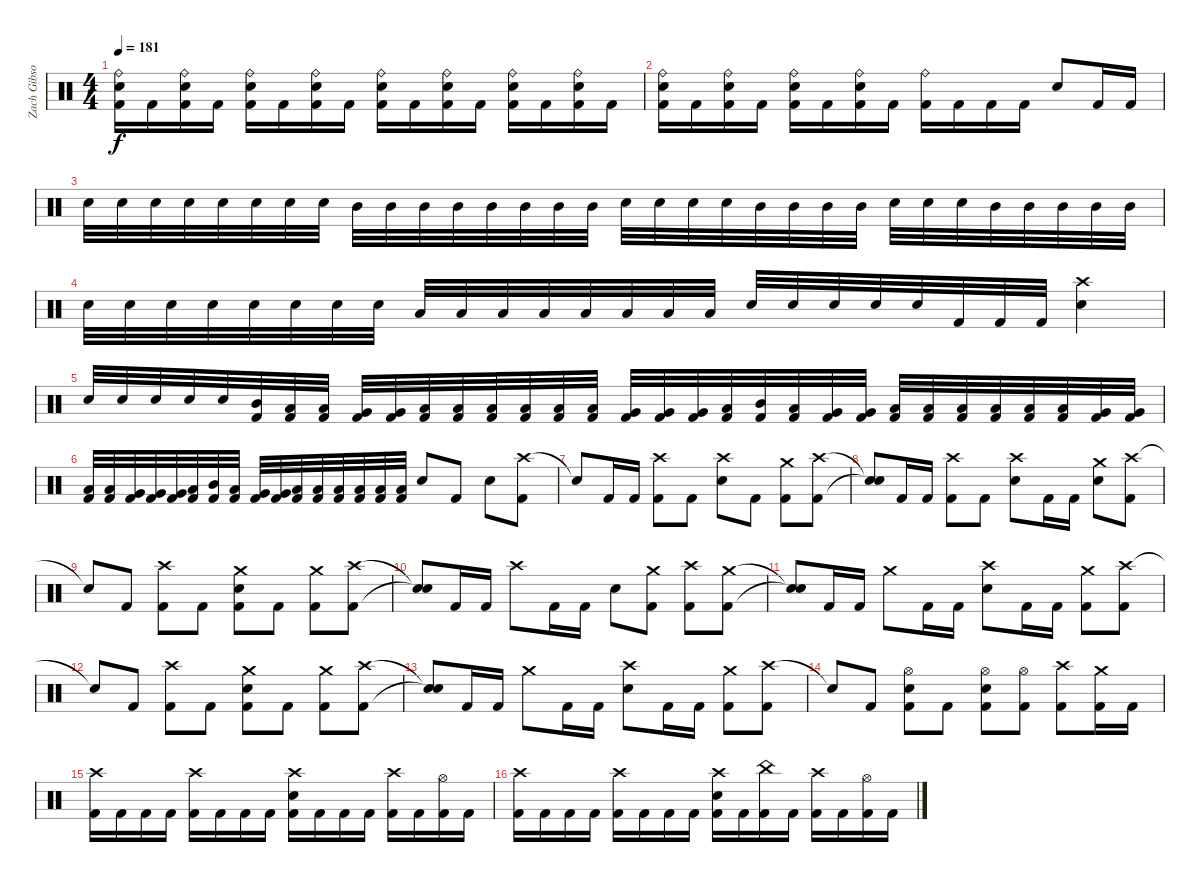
\track ("Zach Gibson (Drums)" "Zach Gibso") {instrument percussion}
\staff {score}
\articulation defaults
\ts (4 4)
\tempo 181
\clef neutral
\ks c
("Ride (bell)" "Snare (hit) 2" "Kick (hit) 2").16{dy f} "Kick (hit) 2".16 ("Ride (bell)" "Snare (hit) 2" "Kick (hit) 2").16 "Kick (hit) 2".16 ("Ride (bell)" "Snare (hit) 2" "Kick (hit) 2").16 "Kick (hit) 2".16 ("Ride (bell)" "Snare (hit) 2" "Kick (hit) 2").16 "Kick (hit) 2".16 ("Ride (bell)" "Snare (hit) 2" "Kick (hit) 2").16 "Kick (hit) 2".16 ("Ride (bell)" "Snare (hit) 2" "Kick (hit) 2").16 "Kick (hit) 2".16 ("Ride (bell)" "Snare (hit) 2" "Kick (hit) 2").16 "Kick (hit) 2".16 ("Ride (bell)" "Snare (hit) 2" "Kick (hit) 2").16 "Kick (hit) 2".16 |
("Ride (bell)" "Snare (hit) 2" "Kick (hit) 2").16 "Kick (hit) 2".16 ("Ride (bell)" "Snare (hit) 2" "Kick (hit) 2").16 "Kick (hit) 2".16 ("Ride (bell)" "Snare (hit) 2" "Kick (hit) 2").16 "Kick (hit) 2".16 ("Ride (bell)" "Snare (hit) 2" "Kick (hit) 2").16 "Kick (hit) 2".16 ("Ride (bell)" "Kick (hit) 2").16 "Kick (hit) 2".16 "Kick (hit) 2".16 "Kick (hit) 2".16 "Snare (hit) 2".8 "Kick (hit) 2".16 "Kick (hit) 2".16 |
"Snare (hit) 2".32 "Snare (hit) 2".32 "Snare (hit) 2".32 "Snare (hit) 2".32 "Snare (hit) 2".32 "Snare (hit) 2".32 "Snare (hit) 2".32 "Snare (hit) 2".32 "Mid Tom (hit)".32 "Mid Tom (hit)".32 "Mid Tom (hit)".32 "Mid Tom (hit)".32 "Mid Tom (hit)".32 "Mid Tom (hit)".32 "Mid Tom (hit)".32 "Mid Tom (hit)".32 "Snare (hit) 2".32 "Snare (hit) 2".32 "Snare (hit) 2".32 "Snare (hit) 2".32 "Mid Tom (hit)".32 "Mid Tom (hit)".32 "Mid Tom (hit)".32 "Mid Tom (hit)".32 "Snare (hit) 2".32 "Snare (hit) 2".32 "Snare (hit) 2".32 "Mid Tom (hit)".32 "Mid Tom (hit)".32 "Mid Tom (hit)".32 "Mid Tom (hit)".32 "Mid Tom (hit)".32 |
"Snare (hit) 2".32 "Snare (hit) 2".32 "Snare (hit) 2".32 "Snare (hit) 2".32 "Snare (hit) 2".32 "Snare (hit) 2".32 "Snare (hit) 2".32 "Snare (hit) 2".32 "Low Tom (hit)".32 "Low Tom (hit)".32 "Low Tom (hit)".32 "Low Tom (hit)".32 "Low Tom (hit)".32 "Low Tom (hit)".32 "Low Tom (hit)".32 "Low Tom (hit)".32 "Snare (hit) 2".32 "Snare (hit) 2".32 "Snare (hit) 2".32 "Snare (hit) 2".32 "Snare (hit) 2".32 "Kick (hit) 2".32 "Kick (hit) 2".32 "Kick (hit) 2".32 ("Crash high (hit)" "Snare (hit) 2").4 |
"Snare (hit) 2".32 "Snare (hit) 2".32 "Snare (hit) 2".32 "Snare (hit) 2".32 "Snare (hit) 2".32 ("Mid Tom (hit)" "Kick (hit) 2").32 ("Low Tom (hit)" "Kick (hit) 2").32 ("Low Tom (hit)" "Kick (hit) 2").32 ("Very Low Tom (hit)" "Kick (hit) 2").32 ("Very Low Tom (hit)" "Kick (hit) 2").32 ("Low Floor Tom (hit)" "Kick (hit) 2").32 ("Low Floor Tom (hit)" "Kick (hit) 2").32 ("Low Floor Tom (hit)" "Kick (hit) 2").32 ("Low Tom (hit)" "Kick (hit) 2").32 ("Low Tom (hit)" "Kick (hit) 2").32 ("Low Tom (hit)" "Kick (hit) 2").32 ("Very Low Tom (hit)" "Kick (hit) 2").32 ("Very Low Tom (hit)" "Kick (hit) 2").32 ("Very Low Tom (hit)" "Kick (hit) 2").32 ("Low Floor Tom (hit)" "Kick (hit) 2").32 ("Mid Tom (hit)" "Kick (hit) 2").32 ("Low Tom (hit)" "Kick (hit) 2").32 ("Very Low Tom (hit)" "Kick (hit) 2").32 ("Very Low Tom (hit)" "Kick (hit) 2").32 ("Low Floor Tom (hit)" "Kick (hit) 2").32 ("Low Floor Tom (hit)" "Kick (hit) 2").32 ("Low Floor Tom (hit)" "Kick (hit) 2").32 ("Low Floor Tom (hit)" "Kick (hit) 2").32 ("Low Floor Tom (hit)" "Kick (hit) 2").32 ("Low Floor Tom (hit)" "Kick (hit) 2").32 ("Very Low Tom (hit)" "Kick (hit) 2").32 ("Very Low Tom (hit)" "Kick (hit) 2").32 |
("Low Tom (hit)" "Kick (hit) 2").32 ("Low Tom (hit)" "Kick (hit) 2").32 ("Very Low Tom (hit)" "Kick (hit) 2").32 ("Very Low Tom (hit)" "Kick (hit) 2").32 ("Very Low Tom (hit)" "Kick (hit) 2").32 ("Low Floor Tom (hit)" "Kick (hit) 2").32 ("Mid Tom (hit)" "Kick (hit) 2").32 ("Low Tom (hit)" "Kick (hit) 2").32 ("Very Low Tom (hit)" "Kick (hit) 2").32 ("Very Low Tom (hit)" "Kick (hit) 2").32 ("Low Floor Tom (hit)" "Kick (hit) 2").32 ("Low Floor Tom (hit)" "Kick (hit) 2").32 ("Low Floor Tom (hit)" "Kick (hit) 2").32 ("Low Floor Tom (hit)" "Kick (hit) 2").32 ("Low Floor Tom (hit)" "Kick (hit) 2").32 ("Low Floor Tom (hit)" "Kick (hit) 2").32 "Snare (hit) 2".8 "Kick (hit) 2".8 "Snare (hit) 2".8 ("Crash high (hit)" "Kick (hit) 2").8 |
"Snare (hit)"{t}.8 "Kick (hit) 2".16 "Kick (hit) 2".16 ("Crash high (hit)" "Kick (hit) 2").8 "Kick (hit) 2".8 ("Crash high (hit)" "Snare (hit) 2").8 "Kick (hit) 2".8 ("Crash medium (hit)" "Kick (hit) 2").8 ("Crash high (hit)" "Kick (hit) 2").8 |
("Snare (hit)"{t} "Snare (hit)"{t}).8 "Kick (hit) 2".16 "Kick (hit) 2".16 ("Crash high (hit)" "Kick (hit) 2").8 "Kick (hit) 2".8 ("Crash high (hit)" "Snare (hit) 2").8 "Kick (hit) 2".16 "Kick (hit) 2".16 ("Crash medium (hit)" "Snare (hit) 2").8 ("Crash high (hit)" "Kick (hit) 2").8 |
"Snare (hit)"{t}.8 "Kick (hit) 2".8 ("Crash high (hit)" "Kick (hit) 2").8 "Kick (hit) 2".8 ("Crash medium (hit)" "Snare (hit) 2" "Kick (hit) 2").8 "Kick (hit) 2".8 ("Crash medium (hit)" "Kick (hit) 2").8 ("Crash high (hit)" "Kick (hit) 2").8 |
("Snare (hit)"{t} "Snare (hit)"{t}).8 "Kick (hit) 2".16 "Kick (hit) 2".16 "Crash high (hit)".8 "Kick (hit) 2".16 "Kick (hit) 2".16 "Snare (hit) 2".8 ("Crash medium (hit)" "Kick (hit) 2").8 ("Crash high (hit)" "Kick (hit) 2").8 ("Crash medium (hit)" "Kick (hit) 2").8 |
("Snare (hit)"{t} "Snare (hit)"{t}).8 "Kick (hit) 2".16 "Kick (hit) 2".16 "Crash medium (hit)".8 "Kick (hit) 2".16 "Kick (hit) 2".16 ("Crash high (hit)" "Snare (hit) 2").8 "Kick (hit) 2".16 "Kick (hit) 2".16 ("Crash medium (hit)" "Kick (hit) 2").8 ("Crash high (hit)" "Kick (hit) 2").8 |
"Snare (hit)"{t}.8 "Kick (hit) 2".8 ("Crash high (hit)" "Kick (hit) 2").8 "Kick (hit) 2".8 ("Crash medium (hit)" "Snare (hit) 2" "Kick (hit) 2").8 "Kick (hit) 2".8 ("Crash medium (hit)" "Kick (hit) 2").8 ("Crash high (hit)" "Kick (hit) 2").8 |
("Snare (hit)"{t} "Snare (hit)"{t}).8 "Kick (hit) 2".16 "Kick (hit) 2".16 "Crash medium (hit)".8 "Kick (hit) 2".16 "Kick (hit) 2".16 ("Crash high (hit)" "Snare (hit) 2").8 "Kick (hit) 2".16 "Kick (hit) 2".16 ("Crash medium (hit)" "Kick (hit) 2").8 ("Crash high (hit)" "Kick (hit) 2").8 |
"Snare (hit)"{t}.8 "Kick (hit) 2".8 ("Hi-Hat (open)" "Snare (hit) 2" "Kick (hit) 2").8 "Kick (hit) 2".8 ("Hi-Hat (open)" "Snare (hit) 2" "Kick (hit) 2").8 ("Hi-Hat (open)" "Kick (hit) 2").8 ("Crash high (hit)" "Kick (hit) 2").8 ("Crash medium (hit)" "Kick (hit) 2").16 "Kick (hit) 2".16 |
("Crash high (hit)" "Kick (hit) 2").16 "Kick (hit) 2".16 "Kick (hit) 2".16 "Kick (hit) 2".16 ("Crash high (hit)" "Kick (hit) 2").16 "Kick (hit) 2".16 "Kick (hit) 2".16 "Kick (hit) 2".16 ("Crash high (hit)" "Snare (hit) 2" "Kick (hit) 2").16 "Kick (hit) 2".16 "Kick (hit) 2".16 "Kick (hit) 2".16 ("Crash high (hit)" "Kick (hit) 2").16 "Kick (hit) 2".16 ("Hi-Hat (open)" "Kick (hit) 2").16 "Kick (hit) 2".16 |
("Crash high (hit)" "Kick (hit) 2").16 "Kick (hit) 2".16 "Kick (hit) 2".16 "Kick (hit) 2".16 ("Crash high (hit)" "Kick (hit) 2").16 "Kick (hit) 2".16 "Kick (hit) 2".16 "Kick (hit) 2".16 ("Crash high (hit)" "Snare (hit) 2" "Kick (hit) 2").16 "Kick (hit) 2".16 ("China (hit)" "Kick (hit) 2").16 "Kick (hit) 2".16 ("Crash high (hit)" "Kick (hit) 2").16 "Kick (hit) 2".16 ("Hi-Hat (open)" "Kick (hit) 2").16 "Kick (hit) 2".16
